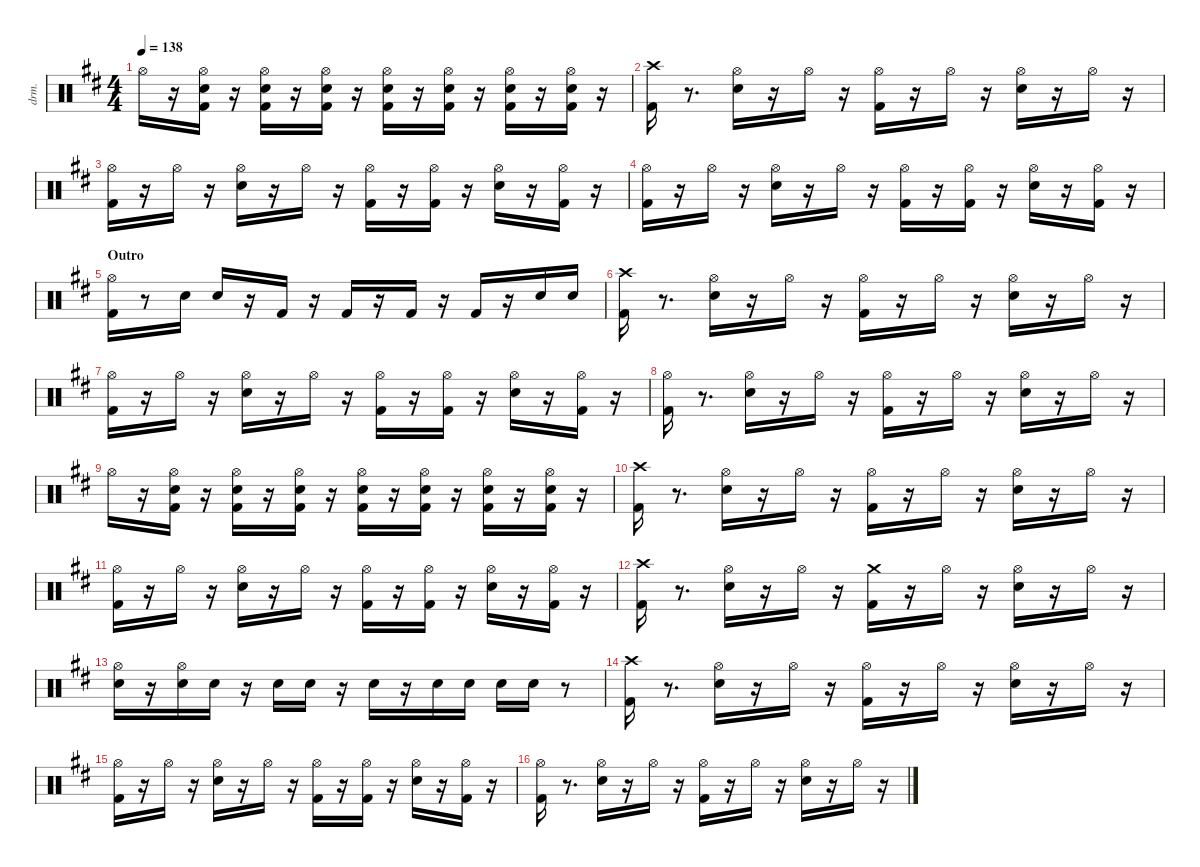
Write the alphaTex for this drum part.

\hideDynamics
\bracketExtendMode groupsimilarinstruments
\otherSystemsTrackNameOrientation horizontal
\track ("Drumkit" "drm.") {instrument percussion}
\staff {score}
\articulation defaults
\ts (4 4)
\tempo 138
\clef neutral
\ks d "Hi-Hat (open)"{acc #}.16{dy mf}
r.16 ("Kick (hit) 2"{acc forcenatural} "Snare (hit) 2"{acc forcenatural} "Hi-Hat (open)"{acc #}).16{dy f} r.16 ("Kick (hit) 2"{acc forcenatural} "Snare (hit) 2"{acc forcenatural} "Hi-Hat (open)"{acc #}).16 r.16 ("Kick (hit) 2"{acc forcenatural} "Snare (hit) 2"{acc forcenatural} "Hi-Hat (open)"{acc #}).16 r.16 ("Kick (hit) 2"{acc forcenatural} "Snare (hit) 2"{acc forcenatural} "Hi-Hat (open)"{acc #}).16{dy fff} r.16 ("Kick (hit) 2"{acc forcenatural} "Snare (hit) 2"{acc forcenatural} "Hi-Hat (open)"{acc #}).16{dy ff} r.16 ("Kick (hit) 2"{acc forcenatural} "Snare (hit) 2"{acc forcenatural} "Hi-Hat (open)"{acc #}).16{dy fff} r.16 ("Kick (hit) 2"{acc forcenatural} "Snare (hit) 2"{acc forcenatural} "Hi-Hat (open)"{acc #}).16 r.16 |
("Kick (hit) 2"{acc forcenatural} "Crash high (hit)"{acc #}).16{dy f} r.8{d} ("Snare (hit) 2"{acc forcenatural} "Hi-Hat (open)"{acc #}).16 r.16 "Hi-Hat (open)"{acc #}.16{dy p} r.16 ("Kick (hit) 2"{acc forcenatural} "Hi-Hat (open)"{acc #}).16{dy f} r.16 "Hi-Hat (open)"{acc #}.16{dy p} r.16 ("Snare (hit) 2"{acc forcenatural} "Hi-Hat (open)"{acc #}).16{dy f} r.16 "Hi-Hat (open)"{acc #}.16{dy p} r.16 |
("Kick (hit) 2"{acc forcenatural} "Hi-Hat (open)"{acc #}).16{dy ff} r.16 "Hi-Hat (open)"{acc #}.16{dy p} r.16 ("Snare (hit) 2"{acc forcenatural} "Hi-Hat (open)"{acc #}).16{dy mf} r.16 "Hi-Hat (open)"{acc #}.16{dy p} r.16 ("Kick (hit) 2"{acc forcenatural} "Hi-Hat (open)"{acc #}).16{dy ff} r.16 ("Kick (hit) 2"{acc forcenatural} "Hi-Hat (open)"{acc #}).16 r.16 ("Snare (hit) 2"{acc forcenatural} "Hi-Hat (open)"{acc #}).16{dy mp} r.16 ("Kick (hit) 2"{acc forcenatural} "Hi-Hat (open)"{acc #}).16{dy f} r.16 |
("Kick (hit) 2"{acc forcenatural} "Hi-Hat (open)"{acc #}).16{dy ff} r.16 "Hi-Hat (open)"{acc #}.16{dy p} r.16 ("Snare (hit) 2"{acc forcenatural} "Hi-Hat (open)"{acc #}).16{dy f} r.16 "Hi-Hat (open)"{acc #}.16{dy p} r.16 ("Kick (hit) 2"{acc forcenatural} "Hi-Hat (open)"{acc #}).16{dy ff} r.16 ("Kick (hit) 2"{acc forcenatural} "Hi-Hat (open)"{acc #}).16 r.16 ("Snare (hit) 2"{acc forcenatural} "Hi-Hat (open)"{acc #}).16{dy mp} r.16 ("Kick (hit) 2"{acc forcenatural} "Hi-Hat (open)"{acc #}).16{dy f} r.16 |
\section ("" "Outro")
("Kick (hit) 2"{acc forcenatural} "Hi-Hat (open)"{acc #}).16{dy fff} r.8 "Snare (hit) 2"{acc forcenatural}.16{dy ff} "Snare (hit) 2"{acc forcenatural}.16 r.16 "Kick (hit) 2"{acc forcenatural}.16{dy fff} r.16 "Kick (hit) 2"{acc forcenatural}.16{dy ff} r.16 "Kick (hit) 2"{acc forcenatural}.16{dy fff} r.16 "Kick (hit) 2"{acc forcenatural}.16 r.16 "Snare (hit) 2"{acc forcenatural}.16{dy f} "Snare (hit) 2"{acc forcenatural}.16 |
("Kick (hit) 2"{acc forcenatural} "Crash high (hit)"{acc #}).16 r.8{d} ("Snare (hit) 2"{acc forcenatural} "Hi-Hat (open)"{acc #}).16 r.16 "Hi-Hat (open)"{acc #}.16{dy p} r.16 ("Kick (hit) 2"{acc forcenatural} "Hi-Hat (open)"{acc #}).16{dy ff} r.16 "Hi-Hat (open)"{acc #}.16{dy p} r.16 ("Snare (hit) 2"{acc forcenatural} "Hi-Hat (open)"{acc #}).16{dy f} r.16 "Hi-Hat (open)"{acc #}.16{dy p} r.16 |
("Kick (hit) 2"{acc forcenatural} "Hi-Hat (open)"{acc #}).16{dy fff} r.16 "Hi-Hat (open)"{acc #}.16{dy p} r.16 ("Snare (hit) 2"{acc forcenatural} "Hi-Hat (open)"{acc #}).16{dy f} r.16 "Hi-Hat (open)"{acc #}.16{dy p} r.16 ("Kick (hit) 2"{acc forcenatural} "Hi-Hat (open)"{acc #}).16{dy ff} r.16 ("Kick (hit) 2"{acc forcenatural} "Hi-Hat (open)"{acc #}).16 r.16 ("Snare (hit) 2"{acc forcenatural} "Hi-Hat (open)"{acc #}).16{dy mp} r.16 ("Kick (hit) 2"{acc forcenatural} "Hi-Hat (open)"{acc #}).16{dy f} r.16 |
("Kick (hit) 2"{acc forcenatural} "Hi-Hat (open)"{acc #}).16 r.8{d} ("Snare (hit) 2"{acc forcenatural} "Hi-Hat (open)"{acc #}).16 r.16 "Hi-Hat (open)"{acc #}.16{dy p} r.16 ("Kick (hit) 2"{acc forcenatural} "Hi-Hat (open)"{acc #}).16{dy f} r.16 "Hi-Hat (open)"{acc #}.16{dy p} r.16 ("Snare (hit) 2"{acc forcenatural} "Hi-Hat (open)"{acc #}).16{dy f} r.16 "Hi-Hat (open)"{acc #}.16{dy p} r.16 |
"Hi-Hat (open)"{acc #}.16{dy mf} r.16 ("Kick (hit) 2"{acc forcenatural} "Snare (hit) 2"{acc forcenatural} "Hi-Hat (open)"{acc #}).16{dy f} r.16 ("Kick (hit) 2"{acc forcenatural} "Snare (hit) 2"{acc forcenatural} "Hi-Hat (open)"{acc #}).16 r.16 ("Kick (hit) 2"{acc forcenatural} "Snare (hit) 2"{acc forcenatural} "Hi-Hat (open)"{acc #}).16 r.16 ("Kick (hit) 2"{acc forcenatural} "Snare (hit) 2"{acc forcenatural} "Hi-Hat (open)"{acc #}).16{dy fff} r.16 ("Kick (hit) 2"{acc forcenatural} "Snare (hit) 2"{acc forcenatural} "Hi-Hat (open)"{acc #}).16{dy ff} r.16 ("Kick (hit) 2"{acc forcenatural} "Snare (hit) 2"{acc forcenatural} "Hi-Hat (open)"{acc #}).16{dy fff} r.16 ("Kick (hit) 2"{acc forcenatural} "Snare (hit) 2"{acc forcenatural} "Hi-Hat (open)"{acc #}).16 r.16 |
("Kick (hit) 2"{acc forcenatural} "Crash high (hit)"{acc #}).16{dy f} r.8{d} ("Snare (hit) 2"{acc forcenatural} "Hi-Hat (open)"{acc #}).16 r.16 "Hi-Hat (open)"{acc #}.16{dy p} r.16 ("Kick (hit) 2"{acc forcenatural} "Hi-Hat (open)"{acc #}).16{dy f} r.16 "Hi-Hat (open)"{acc #}.16{dy p} r.16 ("Snare (hit) 2"{acc forcenatural} "Hi-Hat (open)"{acc #}).16{dy f} r.16 "Hi-Hat (open)"{acc #}.16{dy p} r.16 |
("Kick (hit) 2"{acc forcenatural} "Hi-Hat (open)"{acc #}).16{dy ff} r.16 "Hi-Hat (open)"{acc #}.16{dy p} r.16 ("Snare (hit) 2"{acc forcenatural} "Hi-Hat (open)"{acc #}).16{dy f} r.16 "Hi-Hat (open)"{acc #}.16{dy p} r.16 ("Kick (hit) 2"{acc forcenatural} "Hi-Hat (open)"{acc #}).16{dy ff} r.16 ("Kick (hit) 2"{acc forcenatural} "Hi-Hat (open)"{acc #}).16 r.16 ("Snare (hit) 2"{acc forcenatural} "Hi-Hat (open)"{acc #}).16{dy mp} r.16 ("Kick (hit) 2"{acc forcenatural} "Hi-Hat (open)"{acc #}).16{dy f} r.16 |
("Kick (hit) 2"{acc forcenatural} "Crash high (hit)"{acc #}).16 r.8{d} ("Snare (hit) 2"{acc forcenatural} "Hi-Hat (open)"{acc #}).16 r.16 "Hi-Hat (open)"{acc #}.16{dy p} r.16 ("Kick (hit) 2"{acc forcenatural} "Crash medium (hit)"{acc forcenatural}).16{dy f} r.16 "Hi-Hat (open)"{acc #}.16{dy p} r.16 ("Snare (hit) 2"{acc forcenatural} "Hi-Hat (open)"{acc #}).16{dy f} r.16 "Hi-Hat (open)"{acc #}.16{dy p} r.16 |
("Snare (hit) 2"{acc forcenatural} "Hi-Hat (open)"{acc #}).16{dy f} r.16 ("Snare (hit) 2"{acc forcenatural} "Hi-Hat (open)"{acc #}).16{dy mp} "Snare (hit) 2"{acc forcenatural}.16{dy ff} r.16 "Snare (hit) 2"{acc forcenatural}.16 "Snare (hit) 2"{acc forcenatural}.16{dy f} r.16 "Snare (hit) 2"{acc forcenatural}.16{dy ff} r.16 "Snare (hit) 2"{acc forcenatural}.16{dy f} "Snare (hit) 2"{acc forcenatural}.16 "Snare (hit) 2"{acc forcenatural}.16 "Snare (hit) 2"{acc forcenatural}.16{dy ff} r.8 |
("Kick (hit) 2"{acc forcenatural} "Crash high (hit)"{acc #}).16{dy f} r.8{d} ("Snare (hit) 2"{acc forcenatural} "Hi-Hat (open)"{acc #}).16 r.16 "Hi-Hat (open)"{acc #}.16{dy p} r.16 ("Kick (hit) 2"{acc forcenatural} "Hi-Hat (open)"{acc #}).16{dy f} r.16 "Hi-Hat (open)"{acc #}.16{dy p} r.16 ("Snare (hit) 2"{acc forcenatural} "Hi-Hat (open)"{acc #}).16{dy mf} r.16 "Hi-Hat (open)"{acc #}.16{dy p} r.16 |
("Kick (hit) 2"{acc forcenatural} "Hi-Hat (open)"{acc #}).16{dy fff} r.16 "Hi-Hat (open)"{acc #}.16{dy p} r.16 ("Snare (hit) 2"{acc forcenatural} "Hi-Hat (open)"{acc #}).16{dy f} r.16 "Hi-Hat (open)"{acc #}.16{dy p} r.16 ("Kick (hit) 2"{acc forcenatural} "Hi-Hat (open)"{acc #}).16{dy ff} r.16 ("Kick (hit) 2"{acc forcenatural} "Hi-Hat (open)"{acc #}).16 r.16 ("Snare (hit) 2"{acc forcenatural} "Hi-Hat (open)"{acc #}).16{dy mp} r.16 ("Kick (hit) 2"{acc forcenatural} "Hi-Hat (open)"{acc #}).16{dy f} r.16 |
("Kick (hit) 2"{acc forcenatural} "Hi-Hat (open)"{acc #}).16 r.8{d} ("Snare (hit) 2"{acc forcenatural} "Hi-Hat (open)"{acc #}).16 r.16 "Hi-Hat (open)"{acc #}.16{dy p} r.16 ("Kick (hit) 2"{acc forcenatural} "Hi-Hat (open)"{acc #}).16{dy ff} r.16 "Hi-Hat (open)"{acc #}.16{dy p} r.16 ("Snare (hit) 2"{acc forcenatural} "Hi-Hat (open)"{acc #}).16{dy f} r.16 "Hi-Hat (open)"{acc #}.16{dy p} r.16
